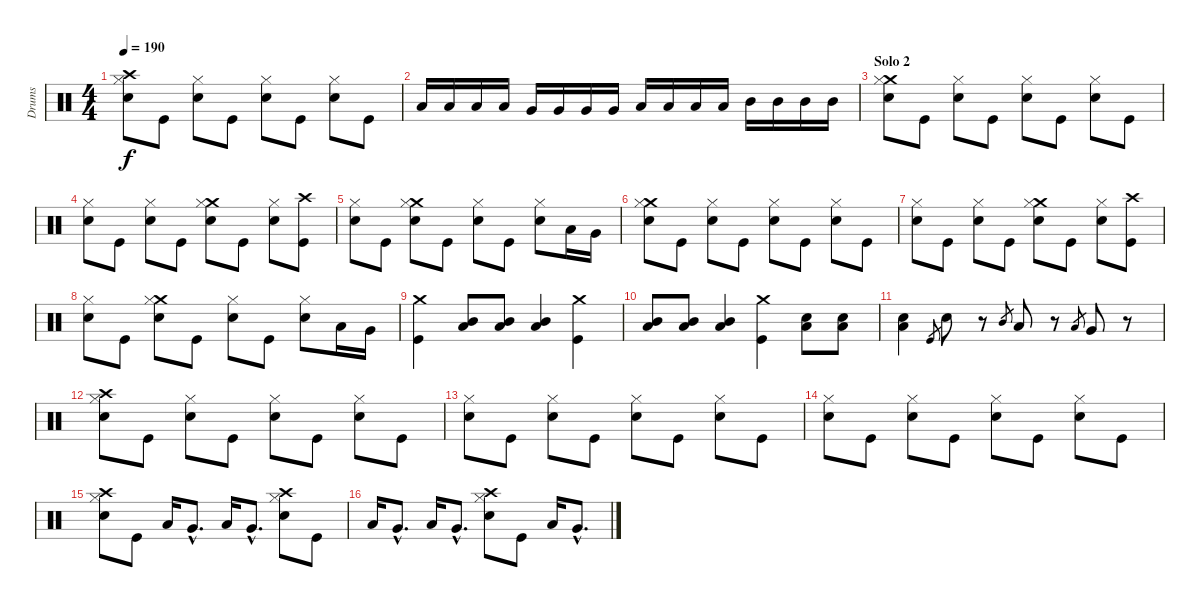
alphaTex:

\track ("Drums" "Drums") {instrument percussion}
\staff {score}
\articulation defaults
\ts (4 4)
\tempo 190
\clef neutral
\ks c
("Crash high (hit)" "Hi-Hat (closed)" "Snare (hit) 2").8{dy f} "Kick (hit)".8 ("Hi-Hat (closed)" "Snare (hit) 2").8 "Kick (hit)".8 ("Hi-Hat (closed)" "Snare (hit) 2").8 "Kick (hit)".8 ("Hi-Hat (closed)" "Snare (hit) 2").8 "Kick (hit)".8 |
"Low Floor Tom (hit)".16 "Low Floor Tom (hit)".16 "Low Floor Tom (hit)".16 "Low Floor Tom (hit)".16 "Very Low Tom (hit)".16 "Very Low Tom (hit)".16 "Very Low Tom (hit)".16 "Very Low Tom (hit)".16 "Low Tom (hit)".16 "Low Tom (hit)".16 "Low Tom (hit)".16 "Low Tom (hit)".16 "Mid Tom (hit)".16 "Mid Tom (hit)".16 "Mid Tom (hit)".16 "Mid Tom (hit)".16 |
\section ("" "Solo 2")
("Crash medium (hit)" "Hi-Hat (closed)" "Snare (hit) 2").8 "Kick (hit)".8 ("Hi-Hat (closed)" "Snare (hit) 2").8 "Kick (hit)".8 ("Hi-Hat (closed)" "Snare (hit) 2").8 "Kick (hit)".8 ("Hi-Hat (closed)" "Snare (hit) 2").8 "Kick (hit)".8 |
("Hi-Hat (closed)" "Snare (hit) 2").8 "Kick (hit)".8 ("Hi-Hat (closed)" "Snare (hit) 2").8 "Kick (hit)".8 ("Crash medium (hit)" "Hi-Hat (closed)" "Snare (hit) 2").8 "Kick (hit)".8 ("Hi-Hat (closed)" "Snare (hit) 2").8 ("Crash high (hit)" "Kick (hit)").8 |
("Hi-Hat (closed)" "Snare (hit) 2").8 "Kick (hit)".8 ("Crash medium (hit)" "Hi-Hat (closed)" "Snare (hit) 2").8 "Kick (hit)".8 ("Hi-Hat (closed)" "Snare (hit) 2").8 "Kick (hit)".8 ("Hi-Hat (closed)" "Snare (hit) 2").8 "Low Tom (hit)".16 "Very Low Tom (hit)".16 |
("Crash medium (hit)" "Hi-Hat (closed)" "Snare (hit) 2").8 "Kick (hit)".8 ("Hi-Hat (closed)" "Snare (hit) 2").8 "Kick (hit)".8 ("Hi-Hat (closed)" "Snare (hit) 2").8 "Kick (hit)".8 ("Hi-Hat (closed)" "Snare (hit) 2").8 "Kick (hit)".8 |
("Hi-Hat (closed)" "Snare (hit) 2").8 "Kick (hit)".8 ("Hi-Hat (closed)" "Snare (hit) 2").8 "Kick (hit)".8 ("Crash medium (hit)" "Hi-Hat (closed)" "Snare (hit) 2").8 "Kick (hit)".8 ("Hi-Hat (closed)" "Snare (hit) 2").8 ("Crash high (hit)" "Kick (hit)").8 |
("Hi-Hat (closed)" "Snare (hit) 2").8 "Kick (hit)".8 ("Crash medium (hit)" "Hi-Hat (closed)" "Snare (hit) 2").8 "Kick (hit)".8 ("Hi-Hat (closed)" "Snare (hit) 2").8 "Kick (hit)".8 ("Hi-Hat (closed)" "Snare (hit) 2").8 "Low Tom (hit)".16 "Very Low Tom (hit)".16 |
("Crash medium (hit)" "Kick (hit)").4 ("Mid Tom (hit)" "Low Tom (hit)").8 ("Mid Tom (hit)" "Low Tom (hit)").8 ("Mid Tom (hit)" "Low Tom (hit)").4 ("Crash medium (hit)" "Kick (hit)").4 |
("Mid Tom (hit)" "Low Tom (hit)").8 ("Mid Tom (hit)" "Low Tom (hit)").8 ("Mid Tom (hit)" "Low Tom (hit)").4 ("Crash medium (hit)" "Kick (hit)").4 ("Snare (hit) 2" "Low Tom (hit)").8 ("Snare (hit) 2" "Low Tom (hit)").8 |
("Snare (hit) 2" "Low Tom (hit)").4 "Kick (hit)".8{gr} "Snare (hit) 2".8 r.8 "Mid Tom (hit)".8{gr} "Low Tom (hit)".8 r.8 "Low Tom (hit)".8{gr} "Very Low Tom (hit)".8 r.8 |
("Crash high (hit)" "Hi-Hat (closed)" "Snare (hit) 2").8 "Kick (hit)".8 ("Hi-Hat (closed)" "Snare (hit) 2").8 "Kick (hit)".8 ("Hi-Hat (closed)" "Snare (hit) 2").8 "Kick (hit)".8 ("Hi-Hat (closed)" "Snare (hit) 2").8 "Kick (hit)".8 |
("Hi-Hat (closed)" "Snare (hit) 2").8 "Kick (hit)".8 ("Hi-Hat (closed)" "Snare (hit) 2").8 "Kick (hit)".8 ("Hi-Hat (closed)" "Snare (hit) 2").8 "Kick (hit)".8 ("Hi-Hat (closed)" "Snare (hit) 2").8 "Kick (hit)".8 |
("Hi-Hat (closed)" "Snare (hit) 2").8 "Kick (hit)".8 ("Hi-Hat (closed)" "Snare (hit) 2").8 "Kick (hit)".8 ("Hi-Hat (closed)" "Snare (hit) 2").8 "Kick (hit)".8 ("Hi-Hat (closed)" "Snare (hit) 2").8 "Kick (hit)".8 |
("Crash high (hit)" "Hi-Hat (closed)" "Snare (hit) 2").8 "Kick (hit)".8 "Low Tom (hit)".16 "Very Low Tom (hit)"{hac}.8{d} "Low Tom (hit)".16 "Very Low Tom (hit)"{hac}.8{d} ("Crash high (hit)" "Hi-Hat (closed)" "Snare (hit) 2").8 "Kick (hit)".8 |
"Low Tom (hit)".16 "Very Low Tom (hit)"{hac}.8{d} "Low Tom (hit)".16 "Very Low Tom (hit)"{hac}.8{d} ("Crash high (hit)" "Hi-Hat (closed)" "Snare (hit) 2").8 "Kick (hit)".8 "Low Tom (hit)".16 "Very Low Tom (hit)"{hac}.8{d}
